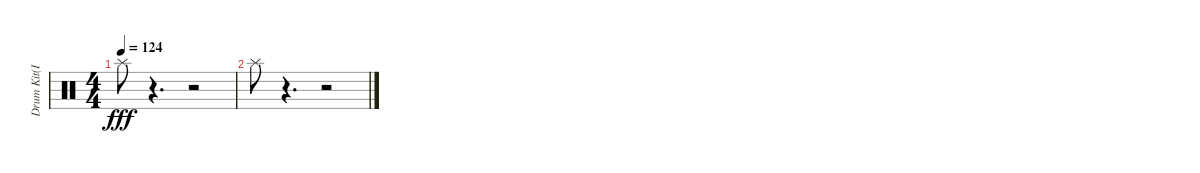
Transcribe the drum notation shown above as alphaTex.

\track ("Drum Kit(Inu)" "Drum Kit(I") {instrument percussion}
\staff {score}
\articulation defaults
\ts (4 4)
\tempo 124
\clef neutral
\ks c "Splash (hit)".8{dy fff}
r.4{d} r.2 |
"Splash (hit)".8 r.4{d} r.2
